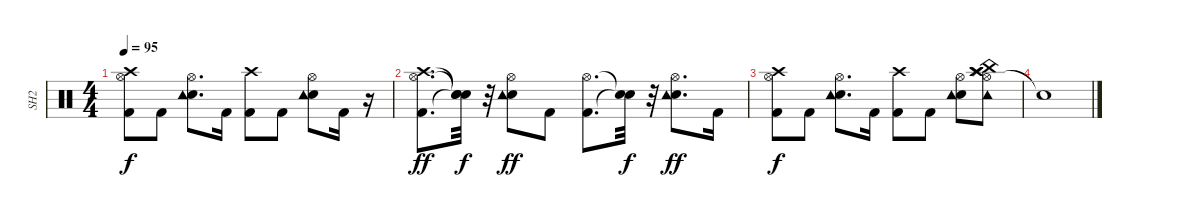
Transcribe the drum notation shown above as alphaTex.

\track ("SH2" "SH2") {instrument percussion}
\staff {score}
\articulation defaults
\ts (4 4)
\tempo 95
\clef neutral
\ks c
("Kick (hit) 2" "Hi-Hat (open)" "Crash high (hit)").8{dy f volume 14} "Kick (hit) 2".8 ("Electric Snare (hit)" "Hi-Hat (open)" "Tambourine (hit)").8{d} "Kick (hit) 2".16 ("Kick (hit) 2" "Crash high (hit)").8 "Kick (hit) 2".8 ("Electric Snare (hit)" "Hi-Hat (open)" "Tambourine (hit)").8 "Kick (hit) 2".16 r.16 |
("Kick (hit) 2" "Hi-Hat (open)" "Crash high (hit)").8{d dy ff} ("Snare (hit)"{t} "Snare (hit)"{t} "Snare (hit)"{t}).32{dy f} r.32 ("Electric Snare (hit)" "Hi-Hat (open)" "Tambourine (hit)").8{dy ff} "Kick (hit) 2".8 ("Kick (hit) 2" "Hi-Hat (open)").8{d} ("Snare (hit)"{t} "Snare (hit)"{t}).32{dy f} r.32 ("Electric Snare (hit)" "Hi-Hat (open)" "Tambourine (hit)").8{d dy ff} "Kick (hit) 2".16 |
("Kick (hit) 2" "Hi-Hat (open)" "Crash high (hit)").8{dy f volume 14} "Kick (hit) 2".8 ("Electric Snare (hit)" "Hi-Hat (open)" "Tambourine (hit)").8{d} "Kick (hit) 2".16 ("Kick (hit) 2" "Crash high (hit)").8 "Kick (hit) 2".8 ("Electric Snare (hit)" "Hi-Hat (open)" "Tambourine (hit)").8 ("Hi-Hat (open)" "Splash (hit)" "Tambourine (hit)" "China (hit)" "Crash high (hit)" "Crash high (hit)").8 |
"Snare (hit)"{t}.1
